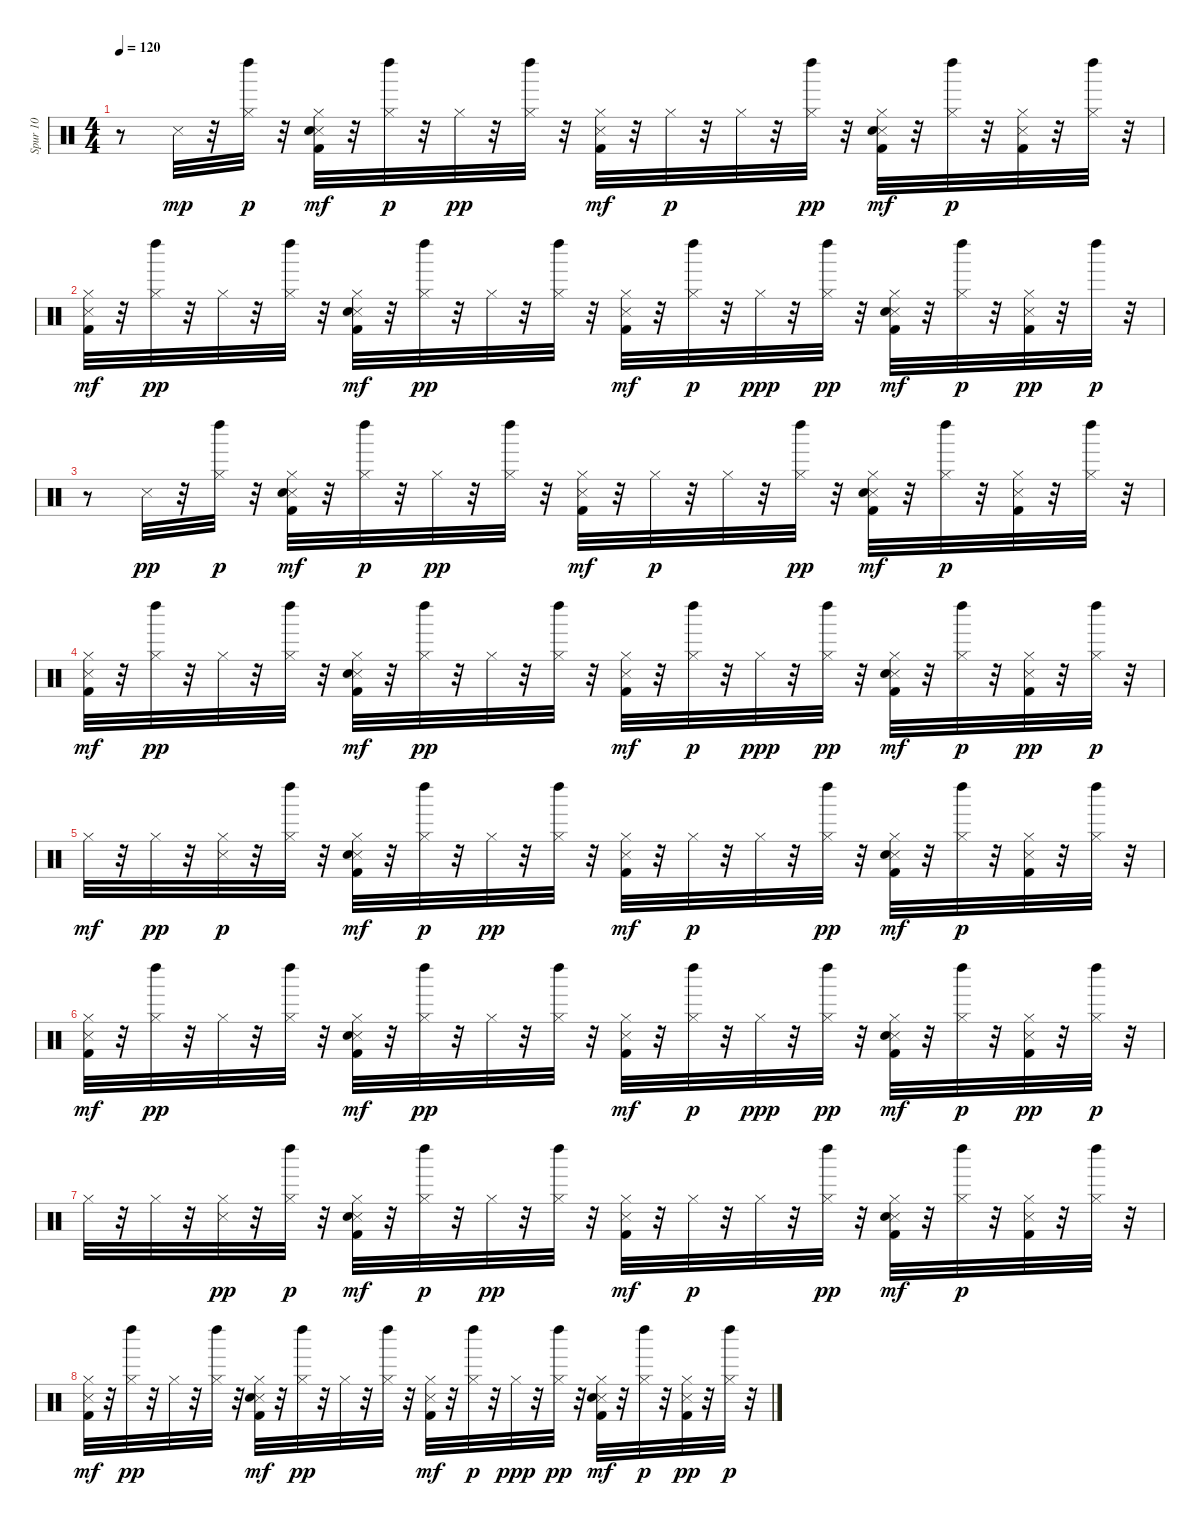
\track ("Spur 10" "Spur 10") {instrument percussion}
\staff {score}
\articulation defaults
\ts (4 4)
\tempo 120
\clef neutral
\ks c
r.8{dy p} "Snare (side stick) 3".32{dy mp} r.32 ("Hi-Hat (closed)" "Left Maraca (hit)").32{dy p} r.32 ("Kick (hit) 2" "Snare (side stick) 3" "Hand Clap (hit)" "Hi-Hat (closed)").32{dy mf} r.32 ("Hi-Hat (closed)" "Left Maraca (hit)").32{dy p} r.32 "Hi-Hat (closed)".32{dy pp} r.32 ("Hi-Hat (closed)" "Left Maraca (hit)").32 r.32 ("Kick (hit) 2" "Snare (side stick) 3" "Hi-Hat (closed)").32{dy mf} r.32 "Hi-Hat (closed)".32{dy p} r.32 "Hi-Hat (closed)".32 r.32 ("Hi-Hat (closed)" "Left Maraca (hit)").32{dy pp} r.32 ("Kick (hit) 2" "Snare (side stick) 3" "Hand Clap (hit)" "Hi-Hat (closed)").32{dy mf} r.32 ("Hi-Hat (closed)" "Left Maraca (hit)").32{dy p} r.32 ("Kick (hit) 2" "Snare (side stick) 3" "Hi-Hat (closed)").32 r.32 ("Hi-Hat (closed)" "Left Maraca (hit)").32 r.32 |
("Kick (hit) 2" "Snare (side stick) 3" "Hi-Hat (closed)").32{dy mf} r.32 ("Hi-Hat (closed)" "Left Maraca (hit)").32{dy pp} r.32 "Hi-Hat (closed)".32 r.32 ("Hi-Hat (closed)" "Left Maraca (hit)").32 r.32 ("Kick (hit) 2" "Snare (side stick) 3" "Hand Clap (hit)" "Hi-Hat (closed)").32{dy mf} r.32 ("Hi-Hat (closed)" "Left Maraca (hit)").32{dy pp} r.32 "Hi-Hat (closed)".32 r.32 ("Hi-Hat (closed)" "Left Maraca (hit)").32 r.32 ("Kick (hit) 2" "Snare (side stick) 3" "Hi-Hat (closed)").32{dy mf} r.32 ("Hi-Hat (closed)" "Left Maraca (hit)").32{dy p} r.32 "Hi-Hat (closed)".32{dy ppp} r.32 ("Hi-Hat (closed)" "Left Maraca (hit)").32{dy pp} r.32 ("Kick (hit) 2" "Snare (side stick) 3" "Hand Clap (hit)" "Hi-Hat (closed)").32{dy mf} r.32 ("Hi-Hat (closed)" "Left Maraca (hit)").32{dy p} r.32 ("Kick (hit) 2" "Snare (side stick) 3" "Hi-Hat (closed)").32{dy pp} r.32 "Left Maraca (hit)".32{dy p} r.32 |
r.8 "Snare (side stick) 3".32{dy pp} r.32 ("Hi-Hat (closed)" "Left Maraca (hit)").32{dy p} r.32 ("Kick (hit) 2" "Snare (side stick) 3" "Hand Clap (hit)" "Hi-Hat (closed)").32{dy mf} r.32 ("Hi-Hat (closed)" "Left Maraca (hit)").32{dy p} r.32 "Hi-Hat (closed)".32{dy pp} r.32 ("Hi-Hat (closed)" "Left Maraca (hit)").32 r.32 ("Kick (hit) 2" "Snare (side stick) 3" "Hi-Hat (closed)").32{dy mf} r.32 "Hi-Hat (closed)".32{dy p} r.32 "Hi-Hat (closed)".32 r.32 ("Hi-Hat (closed)" "Left Maraca (hit)").32{dy pp} r.32 ("Kick (hit) 2" "Snare (side stick) 3" "Hand Clap (hit)" "Hi-Hat (closed)").32{dy mf} r.32 ("Hi-Hat (closed)" "Left Maraca (hit)").32{dy p} r.32 ("Kick (hit) 2" "Snare (side stick) 3" "Hi-Hat (closed)").32 r.32 ("Hi-Hat (closed)" "Left Maraca (hit)").32 r.32 |
("Kick (hit) 2" "Snare (side stick) 3" "Hi-Hat (closed)").32{dy mf} r.32 ("Hi-Hat (closed)" "Left Maraca (hit)").32{dy pp} r.32 "Hi-Hat (closed)".32 r.32 ("Hi-Hat (closed)" "Left Maraca (hit)").32 r.32 ("Kick (hit) 2" "Snare (side stick) 3" "Hand Clap (hit)" "Hi-Hat (closed)").32{dy mf} r.32 ("Hi-Hat (closed)" "Left Maraca (hit)").32{dy pp} r.32 "Hi-Hat (closed)".32 r.32 ("Hi-Hat (closed)" "Left Maraca (hit)").32 r.32 ("Kick (hit) 2" "Snare (side stick) 3" "Hi-Hat (closed)").32{dy mf} r.32 ("Hi-Hat (closed)" "Left Maraca (hit)").32{dy p} r.32 "Hi-Hat (closed)".32{dy ppp} r.32 ("Hi-Hat (closed)" "Left Maraca (hit)").32{dy pp} r.32 ("Kick (hit) 2" "Snare (side stick) 3" "Hand Clap (hit)" "Hi-Hat (closed)").32{dy mf} r.32 ("Hi-Hat (closed)" "Left Maraca (hit)").32{dy p} r.32 ("Kick (hit) 2" "Snare (side stick) 3" "Hi-Hat (closed)").32{dy pp} r.32 ("Hi-Hat (closed)" "Left Maraca (hit)").32{dy p} r.32 |
"Hi-Hat (closed)".32{dy mf} r.32 "Hi-Hat (closed)".32{dy pp} r.32 ("Snare (side stick) 3" "Hi-Hat (closed)").32{dy p} r.32 ("Hi-Hat (closed)" "Left Maraca (hit)").32 r.32 ("Kick (hit) 2" "Snare (side stick) 3" "Hand Clap (hit)" "Hi-Hat (closed)").32{dy mf} r.32 ("Hi-Hat (closed)" "Left Maraca (hit)").32{dy p} r.32 "Hi-Hat (closed)".32{dy pp} r.32 ("Hi-Hat (closed)" "Left Maraca (hit)").32 r.32 ("Kick (hit) 2" "Snare (side stick) 3" "Hi-Hat (closed)").32{dy mf} r.32 "Hi-Hat (closed)".32{dy p} r.32 "Hi-Hat (closed)".32 r.32 ("Hi-Hat (closed)" "Left Maraca (hit)").32{dy pp} r.32 ("Kick (hit) 2" "Snare (side stick) 3" "Hand Clap (hit)" "Hi-Hat (closed)").32{dy mf} r.32 ("Hi-Hat (closed)" "Left Maraca (hit)").32{dy p} r.32 ("Kick (hit) 2" "Snare (side stick) 3" "Hi-Hat (closed)").32 r.32 ("Hi-Hat (closed)" "Left Maraca (hit)").32 r.32 |
("Kick (hit) 2" "Snare (side stick) 3" "Hi-Hat (closed)").32{dy mf} r.32 ("Hi-Hat (closed)" "Left Maraca (hit)").32{dy pp} r.32 "Hi-Hat (closed)".32 r.32 ("Hi-Hat (closed)" "Left Maraca (hit)").32 r.32 ("Kick (hit) 2" "Snare (side stick) 3" "Hand Clap (hit)" "Hi-Hat (closed)").32{dy mf} r.32 ("Hi-Hat (closed)" "Left Maraca (hit)").32{dy pp} r.32 "Hi-Hat (closed)".32 r.32 ("Hi-Hat (closed)" "Left Maraca (hit)").32 r.32 ("Kick (hit) 2" "Snare (side stick) 3" "Hi-Hat (closed)").32{dy mf} r.32 ("Hi-Hat (closed)" "Left Maraca (hit)").32{dy p} r.32 "Hi-Hat (closed)".32{dy ppp} r.32 ("Hi-Hat (closed)" "Left Maraca (hit)").32{dy pp} r.32 ("Kick (hit) 2" "Snare (side stick) 3" "Hand Clap (hit)" "Hi-Hat (closed)").32{dy mf} r.32 ("Hi-Hat (closed)" "Left Maraca (hit)").32{dy p} r.32 ("Kick (hit) 2" "Snare (side stick) 3" "Hi-Hat (closed)").32{dy pp} r.32 ("Hi-Hat (closed)" "Left Maraca (hit)").32{dy p} r.32 |
"Hi-Hat (closed)".32 r.32 "Hi-Hat (closed)".32 r.32 ("Snare (side stick) 3" "Hi-Hat (closed)").32{dy pp} r.32 ("Hi-Hat (closed)" "Left Maraca (hit)").32{dy p} r.32 ("Kick (hit) 2" "Snare (side stick) 3" "Hand Clap (hit)" "Hi-Hat (closed)").32{dy mf} r.32 ("Hi-Hat (closed)" "Left Maraca (hit)").32{dy p} r.32 "Hi-Hat (closed)".32{dy pp} r.32 ("Hi-Hat (closed)" "Left Maraca (hit)").32 r.32 ("Kick (hit) 2" "Snare (side stick) 3" "Hi-Hat (closed)").32{dy mf} r.32 "Hi-Hat (closed)".32{dy p} r.32 "Hi-Hat (closed)".32 r.32 ("Hi-Hat (closed)" "Left Maraca (hit)").32{dy pp} r.32 ("Kick (hit) 2" "Snare (side stick) 3" "Hand Clap (hit)" "Hi-Hat (closed)").32{dy mf} r.32 ("Hi-Hat (closed)" "Left Maraca (hit)").32{dy p} r.32 ("Kick (hit) 2" "Snare (side stick) 3" "Hi-Hat (closed)").32 r.32 ("Hi-Hat (closed)" "Left Maraca (hit)").32 r.32 |
("Kick (hit) 2" "Snare (side stick) 3" "Hi-Hat (closed)").32{dy mf} r.32 ("Hi-Hat (closed)" "Left Maraca (hit)").32{dy pp} r.32 "Hi-Hat (closed)".32 r.32 ("Hi-Hat (closed)" "Left Maraca (hit)").32 r.32 ("Kick (hit) 2" "Snare (side stick) 3" "Hand Clap (hit)" "Hi-Hat (closed)").32{dy mf} r.32 ("Hi-Hat (closed)" "Left Maraca (hit)").32{dy pp} r.32 "Hi-Hat (closed)".32 r.32 ("Hi-Hat (closed)" "Left Maraca (hit)").32 r.32 ("Kick (hit) 2" "Snare (side stick) 3" "Hi-Hat (closed)").32{dy mf} r.32 ("Hi-Hat (closed)" "Left Maraca (hit)").32{dy p} r.32 "Hi-Hat (closed)".32{dy ppp} r.32 ("Hi-Hat (closed)" "Left Maraca (hit)").32{dy pp} r.32 ("Kick (hit) 2" "Snare (side stick) 3" "Hand Clap (hit)" "Hi-Hat (closed)").32{dy mf} r.32 ("Hi-Hat (closed)" "Left Maraca (hit)").32{dy p} r.32 ("Kick (hit) 2" "Snare (side stick) 3" "Hi-Hat (closed)").32{dy pp} r.32 ("Hi-Hat (closed)" "Left Maraca (hit)").32{dy p} r.32
